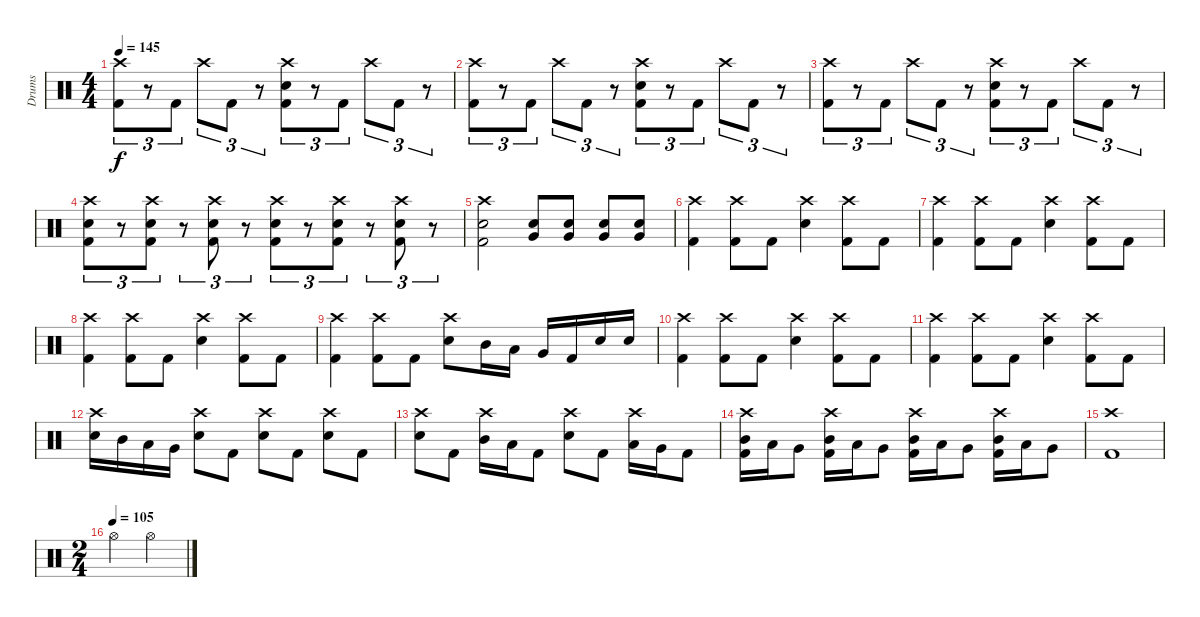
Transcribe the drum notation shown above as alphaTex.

\track ("Drums" "Drums") {instrument percussion}
\staff {score}
\articulation defaults
\ts (4 4)
\tempo 145
\clef neutral
\ks c
("Crash high (hit)" "Kick (hit) 2").8{tu (3 2) dy f} r.8{tu (3 2)} "Kick (hit) 2".8{tu (3 2)} "Crash high (hit)".8{tu (3 2)} "Kick (hit) 2".8{tu (3 2)} r.8{tu (3 2)} ("Crash high (hit)" "Snare (hit) 2" "Kick (hit) 2").8{tu (3 2)} r.8{tu (3 2)} "Kick (hit) 2".8{tu (3 2)} "Crash high (hit)".8{tu (3 2)} "Kick (hit) 2".8{tu (3 2)} r.8{tu (3 2)} |
("Crash high (hit)" "Kick (hit) 2").8{tu (3 2)} r.8{tu (3 2)} "Kick (hit) 2".8{tu (3 2)} "Crash high (hit)".8{tu (3 2)} "Kick (hit) 2".8{tu (3 2)} r.8{tu (3 2)} ("Crash high (hit)" "Snare (hit) 2" "Kick (hit) 2").8{tu (3 2)} r.8{tu (3 2)} "Kick (hit) 2".8{tu (3 2)} "Crash high (hit)".8{tu (3 2)} "Kick (hit) 2".8{tu (3 2)} r.8{tu (3 2)} |
("Crash high (hit)" "Kick (hit) 2").8{tu (3 2)} r.8{tu (3 2)} "Kick (hit) 2".8{tu (3 2)} "Crash high (hit)".8{tu (3 2)} "Kick (hit) 2".8{tu (3 2)} r.8{tu (3 2)} ("Crash high (hit)" "Snare (hit) 2" "Kick (hit) 2").8{tu (3 2)} r.8{tu (3 2)} "Kick (hit) 2".8{tu (3 2)} "Crash high (hit)".8{tu (3 2)} "Kick (hit) 2".8{tu (3 2)} r.8{tu (3 2)} |
("Crash high (hit)" "Snare (hit) 2" "Kick (hit) 2").8{tu (3 2)} r.8{tu (3 2)} ("Crash high (hit)" "Snare (hit) 2" "Kick (hit) 2").8{tu (3 2)} r.8{tu (3 2)} ("Crash high (hit)" "Snare (hit) 2" "Kick (hit) 2").8{tu (3 2)} r.8{tu (3 2)} ("Crash high (hit)" "Snare (hit) 2" "Kick (hit) 2").8{tu (3 2)} r.8{tu (3 2)} ("Crash high (hit)" "Snare (hit) 2" "Kick (hit) 2").8{tu (3 2)} r.8{tu (3 2)} ("Crash high (hit)" "Snare (hit) 2" "Kick (hit) 2").8{tu (3 2)} r.8{tu (3 2)} |
("Crash high (hit)" "Snare (hit) 2" "Kick (hit) 2").2 ("Very Low Tom (hit)" "Snare (hit) 2").8 ("Very Low Tom (hit)" "Snare (hit) 2").8 ("Very Low Tom (hit)" "Snare (hit) 2").8 ("Very Low Tom (hit)" "Snare (hit) 2").8 |
("Crash high (hit)" "Kick (hit) 2").4 ("Crash high (hit)" "Kick (hit) 2").8 "Kick (hit) 2".8 ("Crash high (hit)" "Snare (hit) 2").4 ("Crash high (hit)" "Kick (hit) 2").8 "Kick (hit) 2".8 |
("Crash high (hit)" "Kick (hit) 2").4 ("Crash high (hit)" "Kick (hit) 2").8 "Kick (hit) 2".8 ("Crash high (hit)" "Snare (hit) 2").4 ("Crash high (hit)" "Kick (hit) 2").8 "Kick (hit) 2".8 |
("Crash high (hit)" "Kick (hit) 2").4 ("Crash high (hit)" "Kick (hit) 2").8 "Kick (hit) 2".8 ("Crash high (hit)" "Snare (hit) 2").4 ("Crash high (hit)" "Kick (hit) 2").8 "Kick (hit) 2".8 |
("Crash high (hit)" "Kick (hit) 2").4 ("Crash high (hit)" "Kick (hit) 2").8 "Kick (hit) 2".8 ("Crash high (hit)" "Snare (hit) 2").8 "Mid Tom (hit)".16 "Low Tom (hit)".16 "Very Low Tom (hit)".16 "Kick (hit) 2".16 "Snare (hit) 2".16 "Snare (hit) 2".16 |
("Crash high (hit)" "Kick (hit) 2").4 ("Crash high (hit)" "Kick (hit) 2").8 "Kick (hit) 2".8 ("Crash high (hit)" "Snare (hit) 2").4 ("Crash high (hit)" "Kick (hit) 2").8 "Kick (hit) 2".8 |
("Crash high (hit)" "Kick (hit) 2").4 ("Crash high (hit)" "Kick (hit) 2").8 "Kick (hit) 2".8 ("Crash high (hit)" "Snare (hit) 2").4 ("Crash high (hit)" "Kick (hit) 2").8 "Kick (hit) 2".8 |
("Crash high (hit)" "Snare (hit) 2").16 "Mid Tom (hit)".16 "Low Tom (hit)".16 "Very Low Tom (hit)".16 ("Crash high (hit)" "Snare (hit) 2").8 "Kick (hit) 2".8 ("Crash high (hit)" "Snare (hit) 2").8 "Kick (hit) 2".8 ("Crash high (hit)" "Snare (hit) 2").8 "Kick (hit) 2".8 |
("Crash high (hit)" "Snare (hit) 2").8 "Kick (hit) 2".8 ("Crash high (hit)" "Mid Tom (hit)").16 "Low Tom (hit)".16 "Kick (hit) 2".8 ("Crash high (hit)" "Snare (hit) 2").8 "Kick (hit) 2".8 ("Crash high (hit)" "Low Tom (hit)").16 "Very Low Tom (hit)".16 "Kick (hit) 2".8 |
("Crash high (hit)" "Mid Tom (hit)" "Kick (hit) 2").16 "Low Tom (hit)".16 "Very Low Tom (hit)".8 ("Crash high (hit)" "Mid Tom (hit)" "Kick (hit) 2").16 "Low Tom (hit)".16 "Very Low Tom (hit)".8 ("Crash high (hit)" "Mid Tom (hit)" "Kick (hit) 2").16 "Low Tom (hit)".16 "Very Low Tom (hit)".8 ("Crash high (hit)" "Mid Tom (hit)" "Kick (hit) 2").16 "Low Tom (hit)".16 "Very Low Tom (hit)".8 |
("Crash high (hit)" "Kick (hit) 2").1 |
\ts (2 4)
\tempo (105)
"Hi-Hat (open)".4 "Hi-Hat (open)".4
